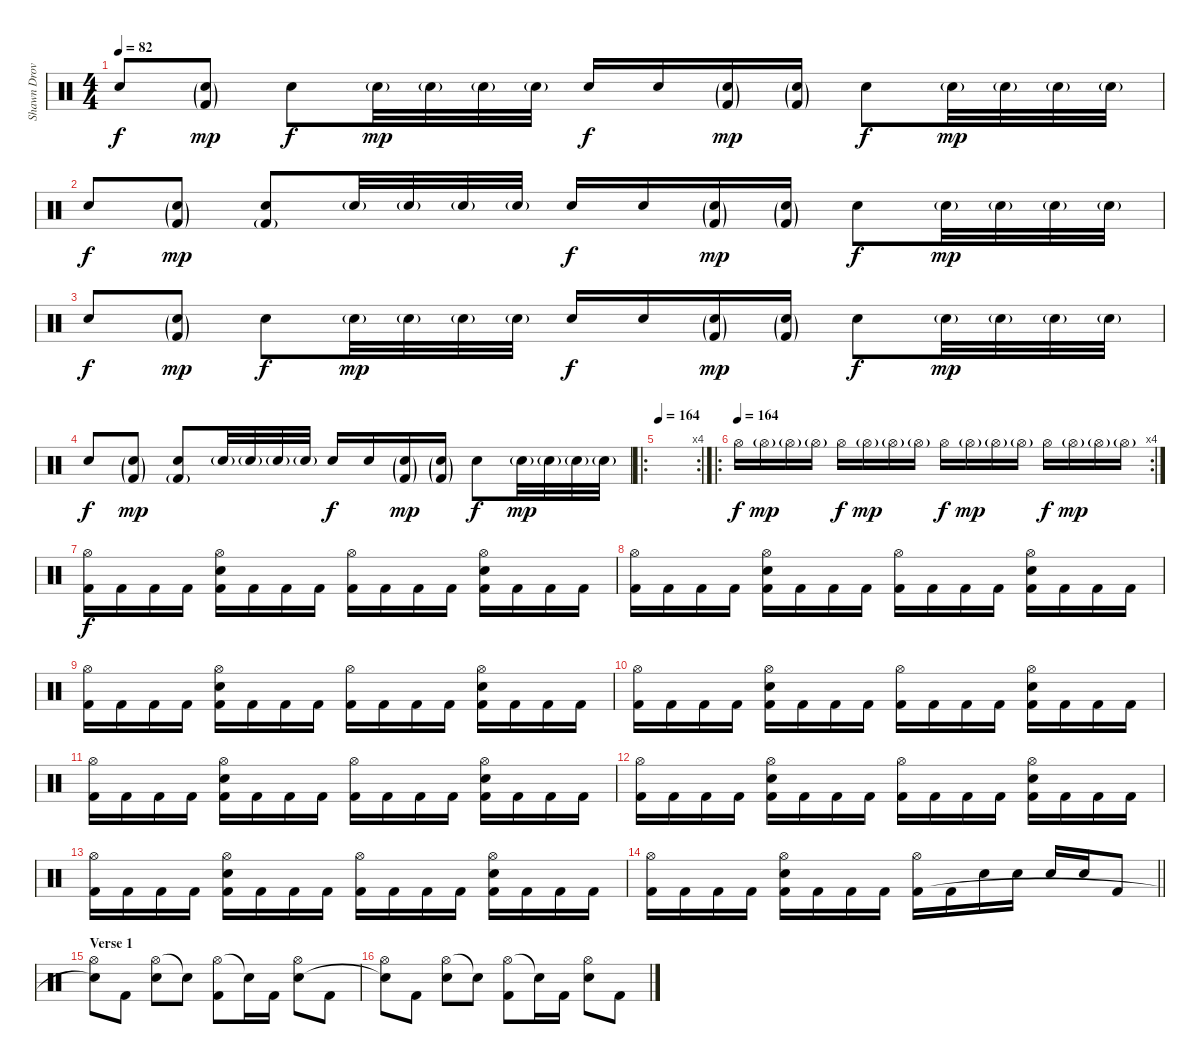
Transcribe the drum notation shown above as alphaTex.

\track ("Shawn Drover" "Shawn Drov") {instrument percussion}
\staff {score}
\articulation defaults
\ts (4 4)
\tempo 82
\clef neutral
\ks c "Snare (hit) 2".8{dy f}
("Snare (hit) 2"{g} "Kick (hit) 2"{g}).8{dy mp} "Snare (hit) 2".8{dy f} "Snare (hit) 2"{g}.32{dy mp} "Snare (hit) 2"{g}.32 "Snare (hit) 2"{g}.32 "Snare (hit) 2"{g}.32 "Snare (hit) 2".16{dy f} "Snare (hit) 2".16 ("Snare (hit) 2"{g} "Kick (hit) 2"{g}).16{dy mp} ("Snare (hit) 2"{g} "Kick (hit) 2"{g}).16 "Snare (hit) 2".8{dy f} "Snare (hit) 2"{g}.32{dy mp} "Snare (hit) 2"{g}.32 "Snare (hit) 2"{g}.32 "Snare (hit) 2"{g}.32 |
"Snare (hit) 2".8{dy f} ("Snare (hit) 2"{g} "Kick (hit) 2"{g}).8{dy mp} ("Snare (hit) 2" "Kick (hit) 2"{g}).8 "Snare (hit) 2"{g}.32 "Snare (hit) 2"{g}.32 "Snare (hit) 2"{g}.32 "Snare (hit) 2"{g}.32 "Snare (hit) 2".16{dy f} "Snare (hit) 2".16 ("Snare (hit) 2"{g} "Kick (hit) 2"{g}).16{dy mp} ("Snare (hit) 2"{g} "Kick (hit) 2"{g}).16 "Snare (hit) 2".8{dy f} "Snare (hit) 2"{g}.32{dy mp} "Snare (hit) 2"{g}.32 "Snare (hit) 2"{g}.32 "Snare (hit) 2"{g}.32 |
"Snare (hit) 2".8{dy f} ("Snare (hit) 2"{g} "Kick (hit) 2"{g}).8{dy mp} "Snare (hit) 2".8{dy f} "Snare (hit) 2"{g}.32{dy mp} "Snare (hit) 2"{g}.32 "Snare (hit) 2"{g}.32 "Snare (hit) 2"{g}.32 "Snare (hit) 2".16{dy f} "Snare (hit) 2".16 ("Snare (hit) 2"{g} "Kick (hit) 2"{g}).16{dy mp} ("Snare (hit) 2"{g} "Kick (hit) 2"{g}).16 "Snare (hit) 2".8{dy f} "Snare (hit) 2"{g}.32{dy mp} "Snare (hit) 2"{g}.32 "Snare (hit) 2"{g}.32 "Snare (hit) 2"{g}.32 |
"Snare (hit) 2".8{dy f} ("Snare (hit) 2"{g} "Kick (hit) 2"{g}).8{dy mp} ("Snare (hit) 2" "Kick (hit) 2"{g}).8 "Snare (hit) 2"{g}.32 "Snare (hit) 2"{g}.32 "Snare (hit) 2"{g}.32 "Snare (hit) 2"{g}.32 "Snare (hit) 2".16{dy f} "Snare (hit) 2".16 ("Snare (hit) 2"{g} "Kick (hit) 2"{g}).16{dy mp} ("Snare (hit) 2"{g} "Kick (hit) 2"{g}).16 "Snare (hit) 2".8{dy f} "Snare (hit) 2"{g}.32{dy mp} "Snare (hit) 2"{g}.32 "Snare (hit) 2"{g}.32 "Snare (hit) 2"{g}.32 |
\ro
\rc 4
\tempo 164
|
\ro
\rc 4
\tempo (164)
"Hi-Hat (open)".16{dy f} "Hi-Hat (open)"{g}.16{dy mp} "Hi-Hat (open)"{g}.16 "Hi-Hat (open)"{g}.16 "Hi-Hat (open)".16{dy f} "Hi-Hat (open)"{g}.16{dy mp} "Hi-Hat (open)"{g}.16 "Hi-Hat (open)"{g}.16 "Hi-Hat (open)".16{dy f} "Hi-Hat (open)"{g}.16{dy mp} "Hi-Hat (open)"{g}.16 "Hi-Hat (open)"{g}.16 "Hi-Hat (open)".16{dy f} "Hi-Hat (open)"{g}.16{dy mp} "Hi-Hat (open)"{g}.16 "Hi-Hat (open)"{g}.16 |
("Hi-Hat (open)" "Kick (hit) 2").16{dy f} "Kick (hit) 2".16 "Kick (hit) 2".16 "Kick (hit) 2".16 ("Hi-Hat (open)" "Snare (hit) 2" "Kick (hit) 2").16 "Kick (hit) 2".16 "Kick (hit) 2".16 "Kick (hit) 2".16 ("Hi-Hat (open)" "Kick (hit) 2").16 "Kick (hit) 2".16 "Kick (hit) 2".16 "Kick (hit) 2".16 ("Hi-Hat (open)" "Snare (hit) 2" "Kick (hit) 2").16 "Kick (hit) 2".16 "Kick (hit) 2".16 "Kick (hit) 2".16 |
("Hi-Hat (open)" "Kick (hit) 2").16 "Kick (hit) 2".16 "Kick (hit) 2".16 "Kick (hit) 2".16 ("Hi-Hat (open)" "Snare (hit) 2" "Kick (hit) 2").16 "Kick (hit) 2".16 "Kick (hit) 2".16 "Kick (hit) 2".16 ("Hi-Hat (open)" "Kick (hit) 2").16 "Kick (hit) 2".16 "Kick (hit) 2".16 "Kick (hit) 2".16 ("Hi-Hat (open)" "Snare (hit) 2" "Kick (hit) 2").16 "Kick (hit) 2".16 "Kick (hit) 2".16 "Kick (hit) 2".16 |
("Hi-Hat (open)" "Kick (hit) 2").16 "Kick (hit) 2".16 "Kick (hit) 2".16 "Kick (hit) 2".16 ("Hi-Hat (open)" "Snare (hit) 2" "Kick (hit) 2").16 "Kick (hit) 2".16 "Kick (hit) 2".16 "Kick (hit) 2".16 ("Hi-Hat (open)" "Kick (hit) 2").16 "Kick (hit) 2".16 "Kick (hit) 2".16 "Kick (hit) 2".16 ("Hi-Hat (open)" "Snare (hit) 2" "Kick (hit) 2").16 "Kick (hit) 2".16 "Kick (hit) 2".16 "Kick (hit) 2".16 |
("Hi-Hat (open)" "Kick (hit) 2").16 "Kick (hit) 2".16 "Kick (hit) 2".16 "Kick (hit) 2".16 ("Hi-Hat (open)" "Snare (hit) 2" "Kick (hit) 2").16 "Kick (hit) 2".16 "Kick (hit) 2".16 "Kick (hit) 2".16 ("Hi-Hat (open)" "Kick (hit) 2").16 "Kick (hit) 2".16 "Kick (hit) 2".16 "Kick (hit) 2".16 ("Hi-Hat (open)" "Snare (hit) 2" "Kick (hit) 2").16 "Kick (hit) 2".16 "Kick (hit) 2".16 "Kick (hit) 2".16 |
("Hi-Hat (open)" "Kick (hit) 2").16 "Kick (hit) 2".16 "Kick (hit) 2".16 "Kick (hit) 2".16 ("Hi-Hat (open)" "Snare (hit) 2" "Kick (hit) 2").16 "Kick (hit) 2".16 "Kick (hit) 2".16 "Kick (hit) 2".16 ("Hi-Hat (open)" "Kick (hit) 2").16 "Kick (hit) 2".16 "Kick (hit) 2".16 "Kick (hit) 2".16 ("Hi-Hat (open)" "Snare (hit) 2" "Kick (hit) 2").16 "Kick (hit) 2".16 "Kick (hit) 2".16 "Kick (hit) 2".16 |
("Hi-Hat (open)" "Kick (hit) 2").16 "Kick (hit) 2".16 "Kick (hit) 2".16 "Kick (hit) 2".16 ("Hi-Hat (open)" "Snare (hit) 2" "Kick (hit) 2").16 "Kick (hit) 2".16 "Kick (hit) 2".16 "Kick (hit) 2".16 ("Hi-Hat (open)" "Kick (hit) 2").16 "Kick (hit) 2".16 "Kick (hit) 2".16 "Kick (hit) 2".16 ("Hi-Hat (open)" "Snare (hit) 2" "Kick (hit) 2").16 "Kick (hit) 2".16 "Kick (hit) 2".16 "Kick (hit) 2".16 |
("Hi-Hat (open)" "Kick (hit) 2").16 "Kick (hit) 2".16 "Kick (hit) 2".16 "Kick (hit) 2".16 ("Hi-Hat (open)" "Snare (hit) 2" "Kick (hit) 2").16 "Kick (hit) 2".16 "Kick (hit) 2".16 "Kick (hit) 2".16 ("Hi-Hat (open)" "Kick (hit) 2").16 "Kick (hit) 2".16 "Kick (hit) 2".16 "Kick (hit) 2".16 ("Hi-Hat (open)" "Snare (hit) 2" "Kick (hit) 2").16 "Kick (hit) 2".16 "Kick (hit) 2".16 "Kick (hit) 2".16 |
\barLineRight lightlight
("Hi-Hat (open)" "Kick (hit) 2").16 "Kick (hit) 2".16 "Kick (hit) 2".16 "Kick (hit) 2".16 ("Hi-Hat (open)" "Snare (hit) 2" "Kick (hit) 2").16 "Kick (hit) 2".16 "Kick (hit) 2".16 "Kick (hit) 2".16 ("Hi-Hat (open)" "Kick (hit) 2").16 "Kick (hit) 2".16 "Snare (hit) 2".16 "Snare (hit) 2".16 "Snare (hit) 2".16 "Snare (hit) 2".16 "Kick (hit) 2".8 |
\section ("" "Verse 1")
("Hi-Hat (open)" "Snare (hit)"{t}).8 "Kick (hit) 2".8 ("Hi-Hat (open)" "Snare (hit) 2").8 "Snare (hit)"{t}.8 ("Hi-Hat (open)" "Kick (hit) 2").8 "Snare (hit)"{t}.16 "Kick (hit) 2".16 ("Hi-Hat (open)" "Snare (hit) 2").8 "Kick (hit) 2".8 |
("Hi-Hat (open)" "Snare (hit)"{t}).8 "Kick (hit) 2".8 ("Hi-Hat (open)" "Snare (hit) 2").8 "Snare (hit)"{t}.8 ("Hi-Hat (open)" "Kick (hit) 2").8 "Snare (hit)"{t}.16 "Kick (hit) 2".16 ("Hi-Hat (open)" "Snare (hit) 2").8 "Kick (hit) 2".8
